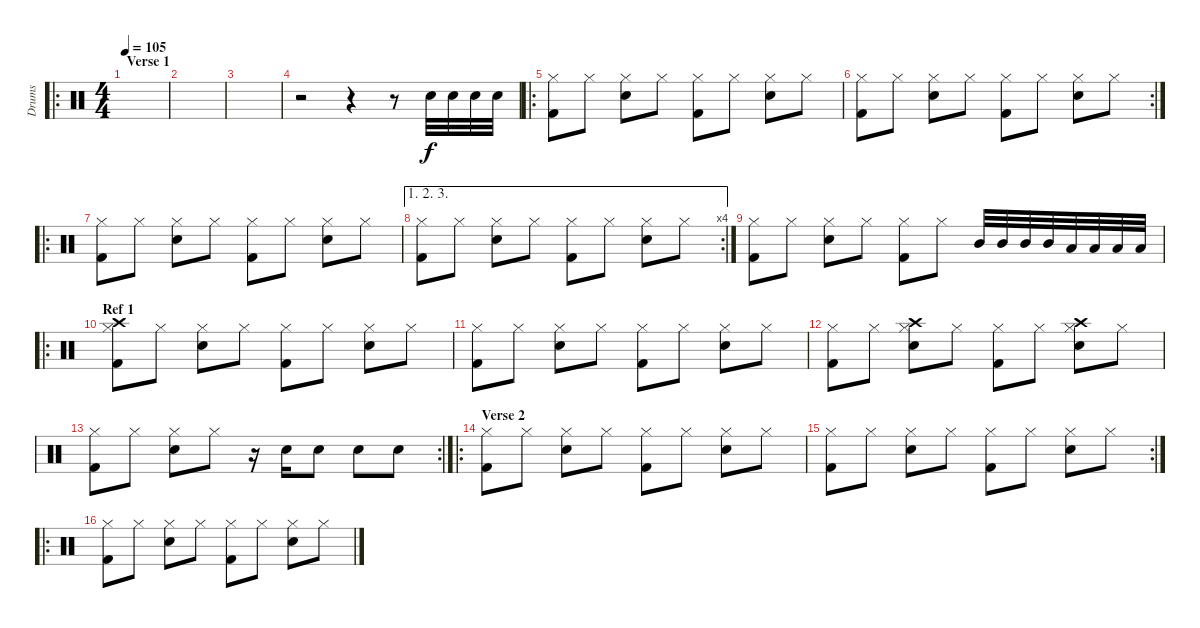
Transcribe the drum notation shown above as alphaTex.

\track ("Drums" "Drums") {instrument percussion}
\staff {score}
\articulation defaults
\ro
\ts (4 4)
\section ("" "Verse 1")
\tempo 105
\clef neutral
\ks c
|
|
|
r.2 r.4 r.8 "Snare (hit) 2".32 "Snare (hit) 2".32 "Snare (hit) 2".32 "Snare (hit) 2".32 |
\ro
("Hi-Hat (closed)" "Kick (hit) 2").8 "Hi-Hat (closed)".8 ("Hi-Hat (closed)" "Snare (hit) 2").8 "Hi-Hat (closed)".8 ("Hi-Hat (closed)" "Kick (hit) 2").8 "Hi-Hat (closed)".8 ("Hi-Hat (closed)" "Snare (hit) 2").8 "Hi-Hat (closed)".8 |
\rc 2
("Hi-Hat (closed)" "Kick (hit) 2").8 "Hi-Hat (closed)".8 ("Hi-Hat (closed)" "Snare (hit) 2").8 "Hi-Hat (closed)".8 ("Hi-Hat (closed)" "Kick (hit) 2").8 "Hi-Hat (closed)".8 ("Hi-Hat (closed)" "Snare (hit) 2").8 "Hi-Hat (closed)".8 |
\ro
("Hi-Hat (closed)" "Kick (hit) 2").8 "Hi-Hat (closed)".8 ("Hi-Hat (closed)" "Snare (hit) 2").8 "Hi-Hat (closed)".8 ("Hi-Hat (closed)" "Kick (hit) 2").8 "Hi-Hat (closed)".8 ("Hi-Hat (closed)" "Snare (hit) 2").8 "Hi-Hat (closed)".8 |
\ae (1 2 3)
\rc 4
("Hi-Hat (closed)" "Kick (hit) 2").8 "Hi-Hat (closed)".8 ("Hi-Hat (closed)" "Snare (hit) 2").8 "Hi-Hat (closed)".8 ("Hi-Hat (closed)" "Kick (hit) 2").8 "Hi-Hat (closed)".8 ("Hi-Hat (closed)" "Snare (hit) 2").8 "Hi-Hat (closed)".8 |
("Hi-Hat (closed)" "Kick (hit) 2").8 "Hi-Hat (closed)".8 ("Hi-Hat (closed)" "Snare (hit) 2").8 "Hi-Hat (closed)".8 ("Hi-Hat (closed)" "Kick (hit) 2").8 "Hi-Hat (closed)".8 "Mid Tom (hit)".32 "Mid Tom (hit)".32 "Mid Tom (hit)".32 "Mid Tom (hit)".32 "Low Tom (hit)".32 "Low Tom (hit)".32 "Low Tom (hit)".32 "Low Tom (hit)".32 |
\ro
\section ("" "Ref 1")
("Hi-Hat (closed)" "Crash high (hit)" "Kick (hit) 2").8 "Hi-Hat (closed)".8 ("Hi-Hat (closed)" "Snare (hit) 2").8 "Hi-Hat (closed)".8 ("Hi-Hat (closed)" "Kick (hit) 2").8 "Hi-Hat (closed)".8 ("Hi-Hat (closed)" "Snare (hit) 2").8 "Hi-Hat (closed)".8 |
("Hi-Hat (closed)" "Kick (hit) 2").8 "Hi-Hat (closed)".8 ("Hi-Hat (closed)" "Snare (hit) 2").8 "Hi-Hat (closed)".8 ("Hi-Hat (closed)" "Kick (hit) 2").8 "Hi-Hat (closed)".8 ("Hi-Hat (closed)" "Snare (hit) 2").8 "Hi-Hat (closed)".8 |
("Hi-Hat (closed)" "Kick (hit) 2").8 "Hi-Hat (closed)".8 ("Hi-Hat (closed)" "Crash high (hit)" "Snare (hit) 2").8 "Hi-Hat (closed)".8 ("Hi-Hat (closed)" "Kick (hit) 2").8 "Hi-Hat (closed)".8 ("Hi-Hat (closed)" "Crash high (hit)" "Snare (hit) 2").8 "Hi-Hat (closed)".8 |
\rc 2
("Hi-Hat (closed)" "Kick (hit) 2").8 "Hi-Hat (closed)".8 ("Hi-Hat (closed)" "Snare (hit) 2").8 "Hi-Hat (closed)".8 r.16 "Snare (hit) 2".16 "Snare (hit) 2".8 "Snare (hit) 2".8 "Snare (hit) 2".8 |
\ro
\section ("" "Verse 2")
("Hi-Hat (closed)" "Kick (hit) 2").8 "Hi-Hat (closed)".8 ("Hi-Hat (closed)" "Snare (hit) 2").8 "Hi-Hat (closed)".8 ("Hi-Hat (closed)" "Kick (hit) 2").8 "Hi-Hat (closed)".8 ("Hi-Hat (closed)" "Snare (hit) 2").8 "Hi-Hat (closed)".8 |
\rc 2
("Hi-Hat (closed)" "Kick (hit) 2").8 "Hi-Hat (closed)".8 ("Hi-Hat (closed)" "Snare (hit) 2").8 "Hi-Hat (closed)".8 ("Hi-Hat (closed)" "Kick (hit) 2").8 "Hi-Hat (closed)".8 ("Hi-Hat (closed)" "Snare (hit) 2").8 "Hi-Hat (closed)".8 |
\ro
("Hi-Hat (closed)" "Kick (hit) 2").8 "Hi-Hat (closed)".8 ("Hi-Hat (closed)" "Snare (hit) 2").8 "Hi-Hat (closed)".8 ("Hi-Hat (closed)" "Kick (hit) 2").8 "Hi-Hat (closed)".8 ("Hi-Hat (closed)" "Snare (hit) 2").8 "Hi-Hat (closed)".8
